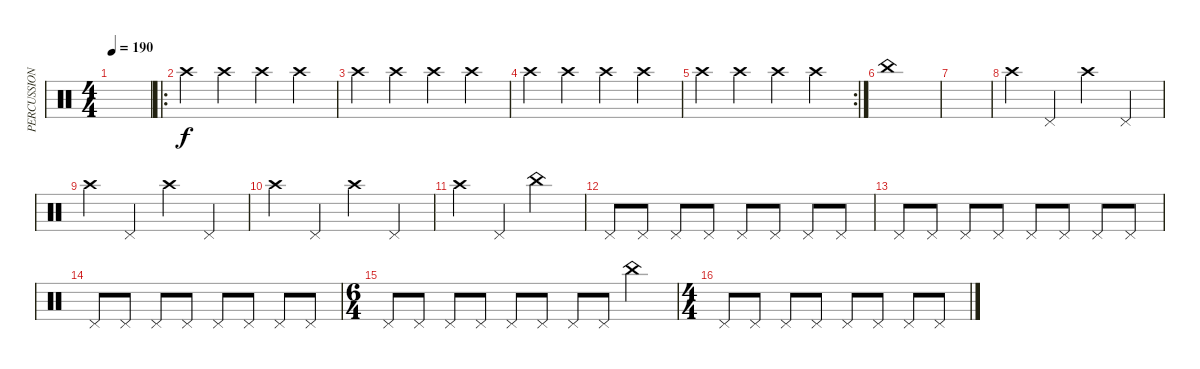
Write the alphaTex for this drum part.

\track ("PERCUSSION" "PERCUSSION") {instrument percussion}
\staff {score}
\articulation defaults
\ts (4 4)
\tempo 190
\clef neutral
\ks c
|
\ro "Crash high (hit)".4 "Crash high (hit)".4 "Crash high (hit)".4 "Crash high (hit)".4
|
"Crash high (hit)".4 "Crash high (hit)".4 "Crash high (hit)".4 "Crash high (hit)".4 |
"Crash high (hit)".4 "Crash high (hit)".4 "Crash high (hit)".4 "Crash high (hit)".4 |
\rc 2 "Crash high (hit)".4 "Crash high (hit)".4 "Crash high (hit)".4 "Crash high (hit)".4
|
"China (hit)".1 |
|
"Crash high (hit)".4 "Pedal Hi-Hat (hit)".4 "Crash high (hit)".4 "Pedal Hi-Hat (hit)".4 |
"Crash high (hit)".4 "Pedal Hi-Hat (hit)".4 "Crash high (hit)".4 "Pedal Hi-Hat (hit)".4 |
"Crash high (hit)".4 "Pedal Hi-Hat (hit)".4 "Crash high (hit)".4 "Pedal Hi-Hat (hit)".4 |
"Crash high (hit)".4 "Pedal Hi-Hat (hit)".4 "China (hit)".2 |
"Pedal Hi-Hat (hit)".8 "Pedal Hi-Hat (hit)".8 "Pedal Hi-Hat (hit)".8 "Pedal Hi-Hat (hit)".8 "Pedal Hi-Hat (hit)".8 "Pedal Hi-Hat (hit)".8 "Pedal Hi-Hat (hit)".8 "Pedal Hi-Hat (hit)".8 |
"Pedal Hi-Hat (hit)".8 "Pedal Hi-Hat (hit)".8 "Pedal Hi-Hat (hit)".8 "Pedal Hi-Hat (hit)".8 "Pedal Hi-Hat (hit)".8 "Pedal Hi-Hat (hit)".8 "Pedal Hi-Hat (hit)".8 "Pedal Hi-Hat (hit)".8 |
"Pedal Hi-Hat (hit)".8 "Pedal Hi-Hat (hit)".8 "Pedal Hi-Hat (hit)".8 "Pedal Hi-Hat (hit)".8 "Pedal Hi-Hat (hit)".8 "Pedal Hi-Hat (hit)".8 "Pedal Hi-Hat (hit)".8 "Pedal Hi-Hat (hit)".8 |
\ts (6 4)
"Pedal Hi-Hat (hit)".8 "Pedal Hi-Hat (hit)".8 "Pedal Hi-Hat (hit)".8 "Pedal Hi-Hat (hit)".8 "Pedal Hi-Hat (hit)".8 "Pedal Hi-Hat (hit)".8 "Pedal Hi-Hat (hit)".8 "Pedal Hi-Hat (hit)".8 "China (hit)".2 |
\ts (4 4)
"Pedal Hi-Hat (hit)".8 "Pedal Hi-Hat (hit)".8 "Pedal Hi-Hat (hit)".8 "Pedal Hi-Hat (hit)".8 "Pedal Hi-Hat (hit)".8 "Pedal Hi-Hat (hit)".8 "Pedal Hi-Hat (hit)".8 "Pedal Hi-Hat (hit)".8
